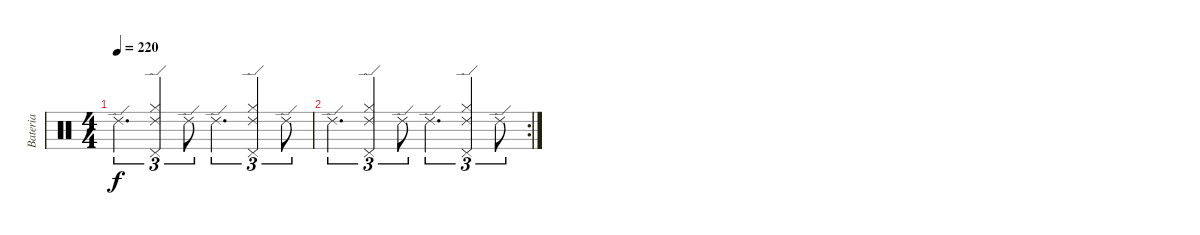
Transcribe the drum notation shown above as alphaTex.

\track ("Bateria" "Bateria") {instrument percussion}
\staff {score}
\articulation defaults
\ts (4 4)
\tempo 220
\clef neutral
\ks c "Ride (edge) 2".4{d tu (3 2) dy f}
("Ride (edge) 2" "Hi-Hat (closed)" "Pedal Hi-Hat (hit)").4{tu (3 2)} "Ride (edge) 2".8{tu (3 2)} "Ride (edge) 2".4{d tu (3 2)} ("Ride (edge) 2" "Hi-Hat (closed)" "Pedal Hi-Hat (hit)").4{tu (3 2)} "Ride (edge) 2".8{tu (3 2)} |
\rc 2 "Ride (edge) 2".4{d tu (3 2)}
("Ride (edge) 2" "Hi-Hat (closed)" "Pedal Hi-Hat (hit)").4{tu (3 2)} "Ride (edge) 2".8{tu (3 2)} "Ride (edge) 2".4{d tu (3 2)} ("Ride (edge) 2" "Hi-Hat (closed)" "Pedal Hi-Hat (hit)").4{tu (3 2)} "Ride (edge) 2".8{tu (3 2)}
